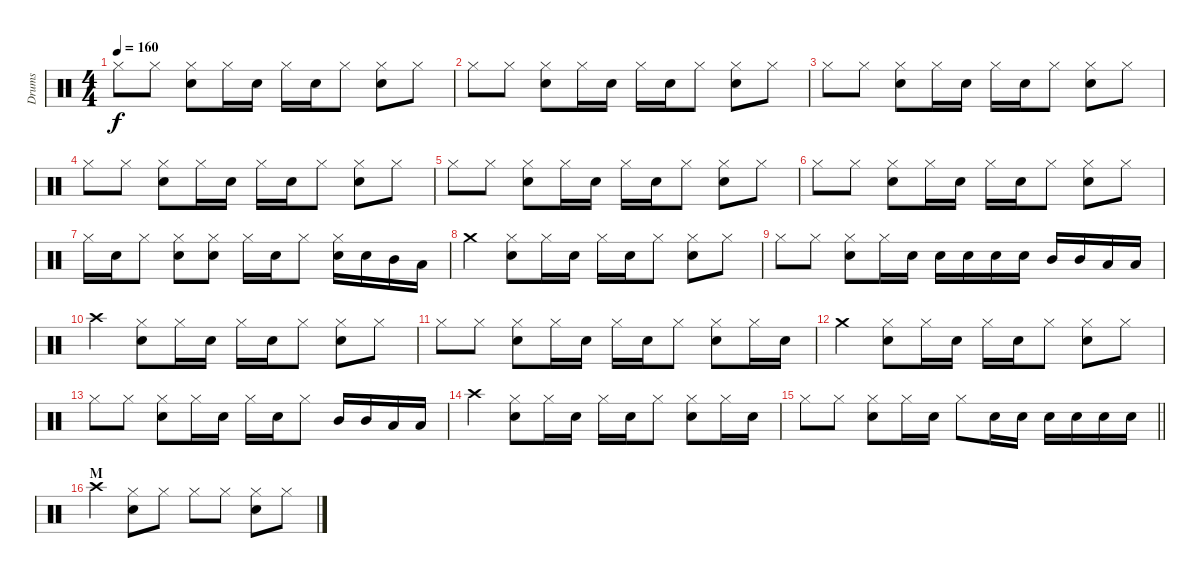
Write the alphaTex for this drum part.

\track ("Drums" "Drums") {instrument percussion}
\staff {score}
\articulation defaults
\ts (4 4)
\tempo 160
\clef neutral
\ks c "Hi-Hat (closed)".8{dy f} "Hi-Hat (closed)".8
("Hi-Hat (closed)" "Snare (hit) 2").8 "Hi-Hat (closed)".16 "Snare (hit) 2".16 "Hi-Hat (closed)".16 "Snare (hit) 2".16 "Hi-Hat (closed)".8 ("Hi-Hat (closed)" "Snare (hit) 2").8 "Hi-Hat (closed)".8 |
"Hi-Hat (closed)".8 "Hi-Hat (closed)".8 ("Hi-Hat (closed)" "Snare (hit) 2").8 "Hi-Hat (closed)".16 "Snare (hit) 2".16 "Hi-Hat (closed)".16 "Snare (hit) 2".16 "Hi-Hat (closed)".8 ("Hi-Hat (closed)" "Snare (hit) 2").8 "Hi-Hat (closed)".8 |
"Hi-Hat (closed)".8 "Hi-Hat (closed)".8 ("Hi-Hat (closed)" "Snare (hit) 2").8 "Hi-Hat (closed)".16 "Snare (hit) 2".16 "Hi-Hat (closed)".16 "Snare (hit) 2".16 "Hi-Hat (closed)".8 ("Hi-Hat (closed)" "Snare (hit) 2").8 "Hi-Hat (closed)".8 |
"Hi-Hat (closed)".8 "Hi-Hat (closed)".8 ("Hi-Hat (closed)" "Snare (hit) 2").8 "Hi-Hat (closed)".16 "Snare (hit) 2".16 "Hi-Hat (closed)".16 "Snare (hit) 2".16 "Hi-Hat (closed)".8 ("Hi-Hat (closed)" "Snare (hit) 2").8 "Hi-Hat (closed)".8 |
"Hi-Hat (closed)".8 "Hi-Hat (closed)".8 ("Hi-Hat (closed)" "Snare (hit) 2").8 "Hi-Hat (closed)".16 "Snare (hit) 2".16 "Hi-Hat (closed)".16 "Snare (hit) 2".16 "Hi-Hat (closed)".8 ("Hi-Hat (closed)" "Snare (hit) 2").8 "Hi-Hat (closed)".8 |
"Hi-Hat (closed)".8 "Hi-Hat (closed)".8 ("Hi-Hat (closed)" "Snare (hit) 2").8 "Hi-Hat (closed)".16 "Snare (hit) 2".16 "Hi-Hat (closed)".16 "Snare (hit) 2".16 "Hi-Hat (closed)".8 ("Hi-Hat (closed)" "Snare (hit) 2").8 "Hi-Hat (closed)".8 |
"Hi-Hat (closed)".16 "Snare (hit) 2".16 "Hi-Hat (closed)".8 ("Hi-Hat (closed)" "Snare (hit) 2").8 ("Hi-Hat (closed)" "Snare (hit) 2").8 "Hi-Hat (closed)".16 "Snare (hit) 2".16 "Hi-Hat (closed)".8 ("Hi-Hat (closed)" "Snare (hit) 2").16 "Snare (hit) 2".16 "Mid Tom (hit)".16 "Low Tom (hit)".16 |
"Crash medium (hit)".4 ("Hi-Hat (closed)" "Snare (hit) 2").8 "Hi-Hat (closed)".16 "Snare (hit) 2".16 "Hi-Hat (closed)".16 "Snare (hit) 2".16 "Hi-Hat (closed)".8 ("Hi-Hat (closed)" "Snare (hit) 2").8 "Hi-Hat (closed)".8 |
"Hi-Hat (closed)".8 "Hi-Hat (closed)".8 ("Hi-Hat (closed)" "Snare (hit) 2").8 "Hi-Hat (closed)".16 "Snare (hit) 2".16 "Snare (hit) 2".16 "Snare (hit) 2".16 "Snare (hit) 2".16 "Snare (hit) 2".16 "Mid Tom (hit)".16 "Mid Tom (hit)".16 "Low Tom (hit)".16 "Low Tom (hit)".16 |
"Crash high (hit)".4 ("Hi-Hat (closed)" "Snare (hit) 2").8 "Hi-Hat (closed)".16 "Snare (hit) 2".16 "Hi-Hat (closed)".16 "Snare (hit) 2".16 "Hi-Hat (closed)".8 ("Hi-Hat (closed)" "Snare (hit) 2").8 "Hi-Hat (closed)".8 |
"Hi-Hat (closed)".8 "Hi-Hat (closed)".8 ("Hi-Hat (closed)" "Snare (hit) 2").8 "Hi-Hat (closed)".16 "Snare (hit) 2".16 "Hi-Hat (closed)".16 "Snare (hit) 2".16 "Hi-Hat (closed)".8 ("Hi-Hat (closed)" "Snare (hit) 2").8 "Hi-Hat (closed)".16 "Snare (hit) 2".16 |
"Crash medium (hit)".4 ("Hi-Hat (closed)" "Snare (hit) 2").8 "Hi-Hat (closed)".16 "Snare (hit) 2".16 "Hi-Hat (closed)".16 "Snare (hit) 2".16 "Hi-Hat (closed)".8 ("Hi-Hat (closed)" "Snare (hit) 2").8 "Hi-Hat (closed)".8 |
"Hi-Hat (closed)".8 "Hi-Hat (closed)".8 ("Hi-Hat (closed)" "Snare (hit) 2").8 "Hi-Hat (closed)".16 "Snare (hit) 2".16 "Hi-Hat (closed)".16 "Snare (hit) 2".16 "Hi-Hat (closed)".8 "Mid Tom (hit)".16 "Mid Tom (hit)".16 "Low Tom (hit)".16 "Low Tom (hit)".16 |
"Crash high (hit)".4 ("Hi-Hat (closed)" "Snare (hit) 2").8 "Hi-Hat (closed)".16 "Snare (hit) 2".16 "Hi-Hat (closed)".16 "Snare (hit) 2".16 "Hi-Hat (closed)".8 ("Hi-Hat (closed)" "Snare (hit) 2").8 "Hi-Hat (closed)".16 "Snare (hit) 2".16 |
\barLineRight lightlight "Hi-Hat (closed)".8 "Hi-Hat (closed)".8
("Hi-Hat (closed)" "Snare (hit) 2").8 "Hi-Hat (closed)".16 "Snare (hit) 2".16 "Hi-Hat (closed)".8 "Snare (hit) 2".16 "Snare (hit) 2".16 "Snare (hit) 2".16 "Snare (hit) 2".16 "Snare (hit) 2".16 "Snare (hit) 2".16 |
\section ("" "M")
"Crash high (hit)".4 ("Hi-Hat (closed)" "Snare (hit) 2").8 "Hi-Hat (closed)".8 "Hi-Hat (closed)".8 "Hi-Hat (closed)".8 ("Hi-Hat (closed)" "Snare (hit) 2").8 "Hi-Hat (closed)".8
